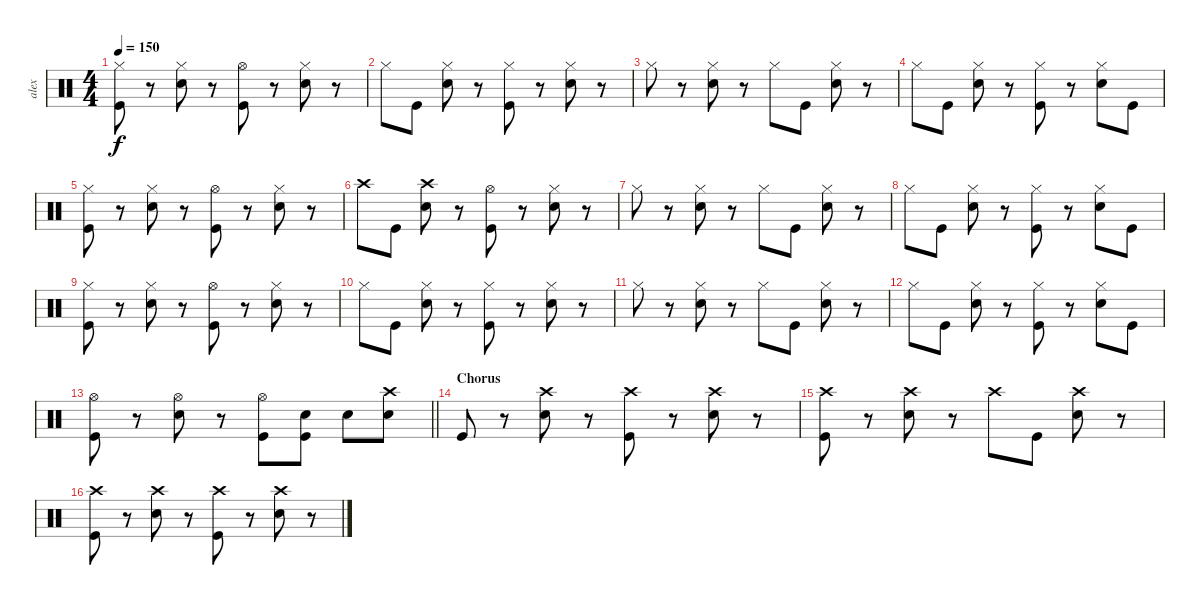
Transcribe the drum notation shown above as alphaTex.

\track ("alex" "alex") {instrument percussion}
\staff {score}
\articulation defaults
\ts (4 4)
\tempo 150
\clef neutral
\ks c
("Hi-Hat (closed)" "Kick (hit)").8{dy f} r.8 ("Hi-Hat (closed)" "Snare (hit) 2").8 r.8 ("Hi-Hat (open)" "Kick (hit)").8 r.8 ("Hi-Hat (closed)" "Snare (hit) 2").8 r.8 |
"Hi-Hat (closed)".8 "Kick (hit)".8 ("Hi-Hat (closed)" "Snare (hit) 2").8 r.8 ("Hi-Hat (closed)" "Kick (hit)").8 r.8 ("Hi-Hat (closed)" "Snare (hit) 2").8 r.8 |
"Hi-Hat (closed)".8 r.8 ("Hi-Hat (closed)" "Snare (hit) 2").8 r.8 "Hi-Hat (closed)".8 "Kick (hit)".8 ("Hi-Hat (closed)" "Snare (hit) 2").8 r.8 |
"Hi-Hat (closed)".8 "Kick (hit)".8 ("Hi-Hat (closed)" "Snare (hit) 2").8 r.8 ("Hi-Hat (closed)" "Kick (hit)").8 r.8 ("Hi-Hat (closed)" "Snare (hit) 2").8 "Kick (hit)".8 |
("Hi-Hat (closed)" "Kick (hit)").8 r.8 ("Hi-Hat (closed)" "Snare (hit) 2").8 r.8 ("Hi-Hat (open)" "Kick (hit)").8 r.8 ("Hi-Hat (closed)" "Snare (hit) 2").8 r.8 |
"Crash high (hit)".8 "Kick (hit)".8 ("Crash high (hit)" "Snare (hit) 2").8 r.8 ("Hi-Hat (open)" "Kick (hit)").8 r.8 ("Hi-Hat (closed)" "Snare (hit) 2").8 r.8 |
"Hi-Hat (closed)".8 r.8 ("Hi-Hat (closed)" "Snare (hit) 2").8 r.8 "Hi-Hat (closed)".8 "Kick (hit)".8 ("Hi-Hat (closed)" "Snare (hit) 2").8 r.8 |
"Hi-Hat (closed)".8 "Kick (hit)".8 ("Hi-Hat (closed)" "Snare (hit) 2").8 r.8 ("Hi-Hat (closed)" "Kick (hit)").8 r.8 ("Hi-Hat (closed)" "Snare (hit) 2").8 "Kick (hit)".8 |
("Hi-Hat (closed)" "Kick (hit)").8 r.8 ("Hi-Hat (closed)" "Snare (hit) 2").8 r.8 ("Hi-Hat (open)" "Kick (hit)").8 r.8 ("Hi-Hat (closed)" "Snare (hit) 2").8 r.8 |
"Hi-Hat (closed)".8 "Kick (hit)".8 ("Hi-Hat (closed)" "Snare (hit) 2").8 r.8 ("Hi-Hat (closed)" "Kick (hit)").8 r.8 ("Hi-Hat (closed)" "Snare (hit) 2").8 r.8 |
"Hi-Hat (closed)".8 r.8 ("Hi-Hat (closed)" "Snare (hit) 2").8 r.8 "Hi-Hat (closed)".8 "Kick (hit)".8 ("Hi-Hat (closed)" "Snare (hit) 2").8 r.8 |
"Hi-Hat (closed)".8 "Kick (hit)".8 ("Hi-Hat (closed)" "Snare (hit) 2").8 r.8 ("Hi-Hat (closed)" "Kick (hit)").8 r.8 ("Hi-Hat (closed)" "Snare (hit) 2").8 "Kick (hit)".8 |
\barLineRight lightlight
("Hi-Hat (open)" "Kick (hit)").8 r.8 ("Hi-Hat (open)" "Snare (hit) 2").8 r.8 ("Hi-Hat (open)" "Kick (hit)").8 ("Snare (hit) 2" "Kick (hit)").8 "Snare (hit) 2".8 ("Crash high (hit)" "Snare (hit) 2").8 |
\section ("" "Chorus")
"Kick (hit)".8 r.8 ("Crash high (hit)" "Snare (hit) 2").8 r.8 ("Crash high (hit)" "Kick (hit)").8 r.8 ("Crash high (hit)" "Snare (hit) 2").8 r.8 |
("Crash high (hit)" "Kick (hit)").8 r.8 ("Crash high (hit)" "Snare (hit) 2").8 r.8 "Crash high (hit)".8 "Kick (hit)".8 ("Crash high (hit)" "Snare (hit) 2").8 r.8 |
("Crash high (hit)" "Kick (hit)").8 r.8 ("Crash high (hit)" "Snare (hit) 2").8 r.8 ("Crash high (hit)" "Kick (hit)").8 r.8 ("Crash high (hit)" "Snare (hit) 2").8 r.8
